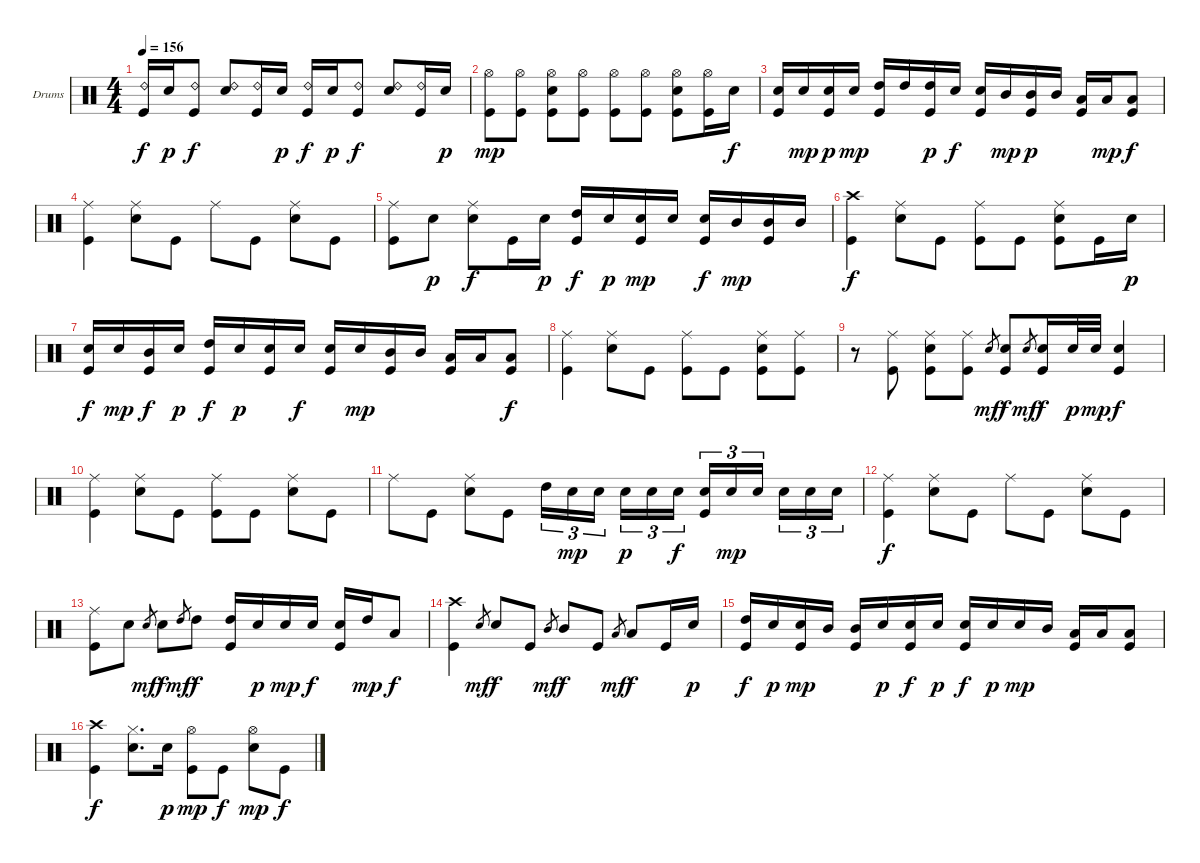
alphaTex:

\bracketExtendMode groupsimilarinstruments
\firstSystemTrackNameOrientation horizontal
\otherSystemsTrackNameOrientation horizontal
\track ("Drumkit" "Drums") {instrument percussion}
\staff {score}
\articulation defaults
\ts (4 4)
\tempo 156
\clef neutral
\ks c
("Ride (bell) 2" "Kick (hit)").16{dy f} "Snare (hit) 2".16{dy p} ("Ride (bell) 2" "Kick (hit)").8{dy f} ("Ride (bell) 2" "Snare (hit) 2").8 ("Ride (bell) 2" "Kick (hit)").16 "Snare (hit) 2".16{dy p} ("Ride (bell) 2" "Kick (hit)").16{dy f} "Snare (hit) 2".16{dy p} ("Ride (bell) 2" "Kick (hit)").8{dy f} ("Ride (bell) 2" "Snare (hit) 2").8 ("Ride (bell) 2" "Kick (hit)").16 "Snare (hit) 2".16{dy p} |
("Hi-Hat (open)" "Kick (hit)").8{dy mp} ("Hi-Hat (open)" "Kick (hit)").8 ("Hi-Hat (open)" "Snare (hit) 2" "Kick (hit)").8 ("Hi-Hat (open)" "Kick (hit)").8 ("Hi-Hat (open)" "Kick (hit)").8 ("Hi-Hat (open)" "Kick (hit)").8 ("Hi-Hat (open)" "Snare (hit) 2" "Kick (hit)").8 ("Hi-Hat (open)" "Kick (hit)").16 "Snare (hit) 2".16{dy f} |
("Snare (hit) 2" "Kick (hit)").16 "Snare (hit) 2".16{dy mp} ("Snare (hit) 2" "Kick (hit)").16{dy p} "Snare (hit) 2".16{dy mp} ("High Tom (hit)" "Kick (hit)").16 "High Tom (hit)".16 ("High Tom (hit)" "Kick (hit)").16{dy p} "Snare (hit) 2".16{dy f} ("Snare (hit) 2" "Kick (hit)").16 "Mid Tom (hit)".16{dy mp} ("Mid Tom (hit)" "Kick (hit)").16{dy p} "Mid Tom (hit)".16 ("Low Tom (hit)" "Kick (hit)").16 "Low Tom (hit)".16{dy mp} ("Low Tom (hit)" "Kick (hit)").8{dy f} |
("Ride (middle)" "Kick (hit)").4 ("Ride (middle)" "Snare (hit) 2").8 "Kick (hit)".8 "Ride (middle)".8 "Kick (hit)".8 ("Ride (middle)" "Snare (hit) 2").8 "Kick (hit)".8 |
("Ride (middle)" "Kick (hit)").8 "Snare (hit) 2".8{dy p} ("Ride (middle)" "Snare (hit) 2").8{dy f} "Kick (hit)".16 "Snare (hit) 2".16{dy p} ("High Tom (hit)" "Kick (hit)").16{dy f} "Snare (hit) 2".16{dy p} ("Snare (hit) 2" "Kick (hit)").16{dy mp} "Snare (hit) 2".16 ("Snare (hit) 2" "Kick (hit)").16{dy f} "Mid Tom (hit)".16{dy mp} ("Mid Tom (hit)" "Kick (hit)").16 "Mid Tom (hit)".16 |
("Crash high (hit)" "Kick (hit)").4{dy f} ("Ride (middle)" "Snare (hit) 2").8 "Kick (hit)".8 ("Ride (middle)" "Kick (hit)").8 "Kick (hit)".8 ("Ride (middle)" "Snare (hit) 2" "Kick (hit)").8 "Kick (hit)".16 "Snare (hit) 2".16{dy p} |
("Snare (hit) 2" "Kick (hit)").16{dy f} "Snare (hit) 2".16{dy mp} ("Mid Tom (hit)" "Kick (hit)").16{dy f} "Snare (hit) 2".16{dy p} ("High Tom (hit)" "Kick (hit)").16{dy f} "Snare (hit) 2".16{dy p} ("Snare (hit) 2" "Kick (hit)").16 "Snare (hit) 2".16{dy f} ("Snare (hit) 2" "Kick (hit)").16 "Snare (hit) 2".16{dy mp} ("Mid Tom (hit)" "Kick (hit)").16 "Mid Tom (hit)".16 ("Low Tom (hit)" "Kick (hit)").16 "Low Tom (hit)".16 ("Low Tom (hit)" "Kick (hit)").8{dy f} |
("Ride (middle)" "Kick (hit)").4 ("Ride (middle)" "Snare (hit) 2").8 "Kick (hit)".8 ("Ride (middle)" "Kick (hit)").8 "Kick (hit)".8 ("Ride (middle)" "Snare (hit) 2" "Kick (hit)").8 ("Ride (middle)" "Kick (hit)").8 |
r.8 ("Ride (middle)" "Kick (hit)").8 ("Ride (middle)" "Snare (hit) 2" "Kick (hit)").8 ("Ride (middle)" "Kick (hit)").8 "Snare (hit) 2".8{gr dy mf} ("Snare (hit) 2" "Kick (hit)").8{dy f} "Snare (hit) 2".8{gr dy mf} ("Snare (hit) 2" "Kick (hit)").16{dy f} "Snare (hit) 2".32{dy p} "Snare (hit) 2".32{dy mp} ("Snare (hit) 2" "Kick (hit)").4{dy f} |
("Ride (middle)" "Kick (hit)").4 ("Ride (middle)" "Snare (hit) 2").8 "Kick (hit)".8 ("Ride (middle)" "Kick (hit)").8 "Kick (hit)".8 ("Ride (middle)" "Snare (hit) 2").8 "Kick (hit)".8 |
"Ride (middle)".8 "Kick (hit)".8 ("Ride (middle)" "Snare (hit) 2").8 "Kick (hit)".8 "High Tom (hit)".16{tu (3 2)} "Snare (hit) 2".16{tu (3 2) dy mp} "Snare (hit) 2".16{tu (3 2)} "Snare (hit) 2".16{tu (3 2) dy p} "Snare (hit) 2".16{tu (3 2)} "Snare (hit) 2".16{tu (3 2) dy f} ("Snare (hit) 2" "Kick (hit)").16{tu (3 2)} "Snare (hit) 2".16{tu (3 2) dy mp} "Snare (hit) 2".16{tu (3 2)} "Snare (hit) 2".16{tu (3 2)} "Snare (hit) 2".16{tu (3 2)} "Snare (hit) 2".16{tu (3 2)} |
("Ride (middle)" "Kick (hit)").4{dy f} ("Ride (middle)" "Snare (hit) 2").8 "Kick (hit)".8 "Ride (middle)".8 "Kick (hit)".8 ("Ride (middle)" "Snare (hit) 2").8 "Kick (hit)".8 |
("Ride (middle)" "Kick (hit)").8 "Snare (hit) 2".8 "Snare (hit) 2".8{gr dy mf} "Snare (hit) 2".8{dy f} "High Tom (hit)".8{gr dy mf} "High Tom (hit)".8{dy f} ("High Tom (hit)" "Kick (hit)").16 "Snare (hit) 2".16{dy p} "Snare (hit) 2".16{dy mp} "Snare (hit) 2".16{dy f} ("Snare (hit) 2" "Kick (hit)").16 "High Tom (hit)".16{dy mp} "Low Tom (hit)".8{dy f} |
("Crash high (hit)" "Kick (hit)").4 "Snare (hit) 2".8{gr dy mf} "Snare (hit) 2".8{dy f} "Kick (hit)".8 "Mid Tom (hit)".8{gr dy mf} "Mid Tom (hit)".8{dy f} "Kick (hit)".8 "Low Tom (hit)".8{gr dy mf} "Low Tom (hit)".8{dy f} "Kick (hit)".16 "Snare (hit) 2".16{dy p} |
("High Tom (hit)" "Kick (hit)").16{dy f} "Snare (hit) 2".16{dy p} ("Snare (hit) 2" "Kick (hit)").16{dy mp} "Mid Tom (hit)".16 ("Mid Tom (hit)" "Kick (hit)").16 "Snare (hit) 2".16{dy p} ("Snare (hit) 2" "Kick (hit)").16{dy f} "Snare (hit) 2".16{dy p} ("Snare (hit) 2" "Kick (hit)").16{dy f} "Snare (hit) 2".16{dy p} "Snare (hit) 2".16{dy mp} "Mid Tom (hit)".16 ("Low Tom (hit)" "Kick (hit)").16 "Low Tom (hit)".16 ("Low Tom (hit)" "Kick (hit)").8 |
("Crash high (hit)" "Kick (hit)").4{dy f} ("Hi-Hat (closed)" "Snare (hit) 2").8{d} "Snare (hit) 2".16{dy p} ("Hi-Hat (open)" "Kick (hit)").8{dy mp} "Kick (hit)".8{dy f} ("Hi-Hat (open)" "Snare (hit) 2").8{dy mp} "Kick (hit)".8{dy f}
